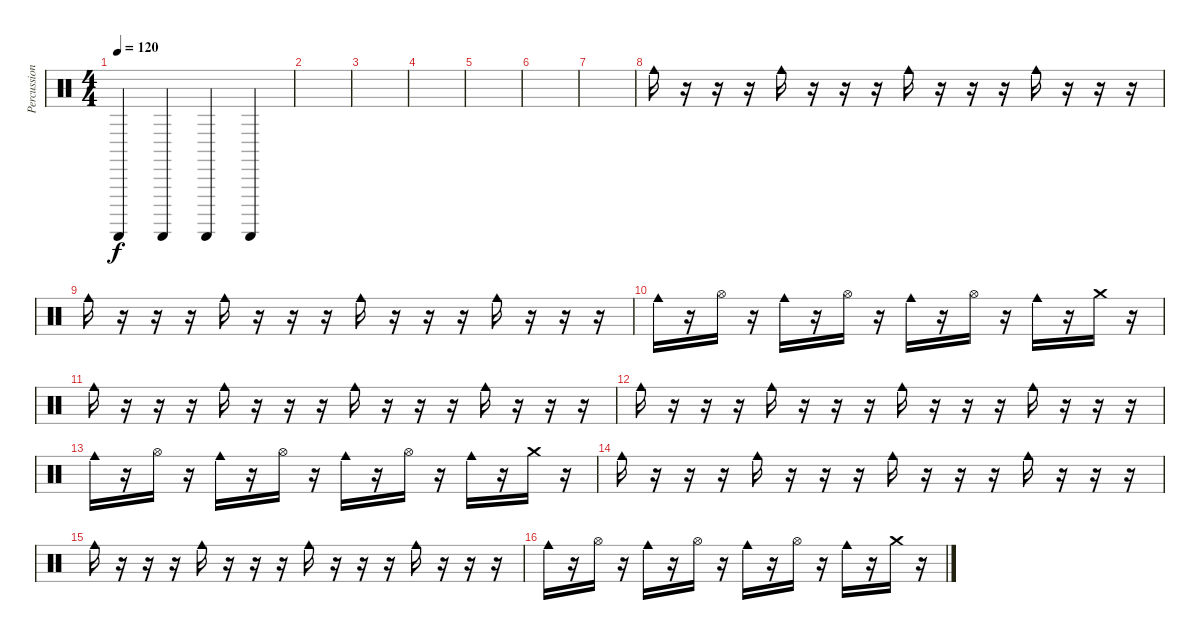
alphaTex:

\track ("Percussion" "Percussion") {instrument percussion}
\staff {score}
\articulation defaults
\ts (4 4)
\tempo 120
\clef neutral
\ks c "Guiro (scrap-return)".4{dy f} "Guiro (scrap-return)".4 "Guiro (scrap-return)".4 "Guiro (scrap-return)".4
|
|
|
|
|
|
|
"Cowbell medium (hit)".16 r.16 r.16 r.16 "Cowbell medium (hit)".16 r.16 r.16 r.16 "Cowbell medium (hit)".16 r.16 r.16 r.16 "Cowbell medium (hit)".16 r.16 r.16 r.16 |
"Cowbell medium (hit)".16 r.16 r.16 r.16 "Cowbell medium (hit)".16 r.16 r.16 r.16 "Cowbell medium (hit)".16 r.16 r.16 r.16 "Cowbell medium (hit)".16 r.16 r.16 r.16 |
"Cowbell medium (hit)".16 r.16 "Hi-Hat (open)".16 r.16 "Cowbell medium (hit)".16 r.16 "Hi-Hat (open)".16 r.16 "Cowbell medium (hit)".16 r.16 "Hi-Hat (open)".16 r.16 "Cowbell medium (hit)".16 r.16 "Crash medium (hit)".16 r.16 |
"Cowbell medium (hit)".16 r.16 r.16 r.16 "Cowbell medium (hit)".16 r.16 r.16 r.16 "Cowbell medium (hit)".16 r.16 r.16 r.16 "Cowbell medium (hit)".16 r.16 r.16 r.16 |
"Cowbell medium (hit)".16 r.16 r.16 r.16 "Cowbell medium (hit)".16 r.16 r.16 r.16 "Cowbell medium (hit)".16 r.16 r.16 r.16 "Cowbell medium (hit)".16 r.16 r.16 r.16 |
"Cowbell medium (hit)".16 r.16 "Hi-Hat (open)".16 r.16 "Cowbell medium (hit)".16 r.16 "Hi-Hat (open)".16 r.16 "Cowbell medium (hit)".16 r.16 "Hi-Hat (open)".16 r.16 "Cowbell medium (hit)".16 r.16 "Crash medium (hit)".16 r.16 |
"Cowbell medium (hit)".16 r.16 r.16 r.16 "Cowbell medium (hit)".16 r.16 r.16 r.16 "Cowbell medium (hit)".16 r.16 r.16 r.16 "Cowbell medium (hit)".16 r.16 r.16 r.16 |
"Cowbell medium (hit)".16 r.16 r.16 r.16 "Cowbell medium (hit)".16 r.16 r.16 r.16 "Cowbell medium (hit)".16 r.16 r.16 r.16 "Cowbell medium (hit)".16 r.16 r.16 r.16 |
"Cowbell medium (hit)".16 r.16 "Hi-Hat (open)".16 r.16 "Cowbell medium (hit)".16 r.16 "Hi-Hat (open)".16 r.16 "Cowbell medium (hit)".16 r.16 "Hi-Hat (open)".16 r.16 "Cowbell medium (hit)".16 r.16 "Crash medium (hit)".16 r.16
